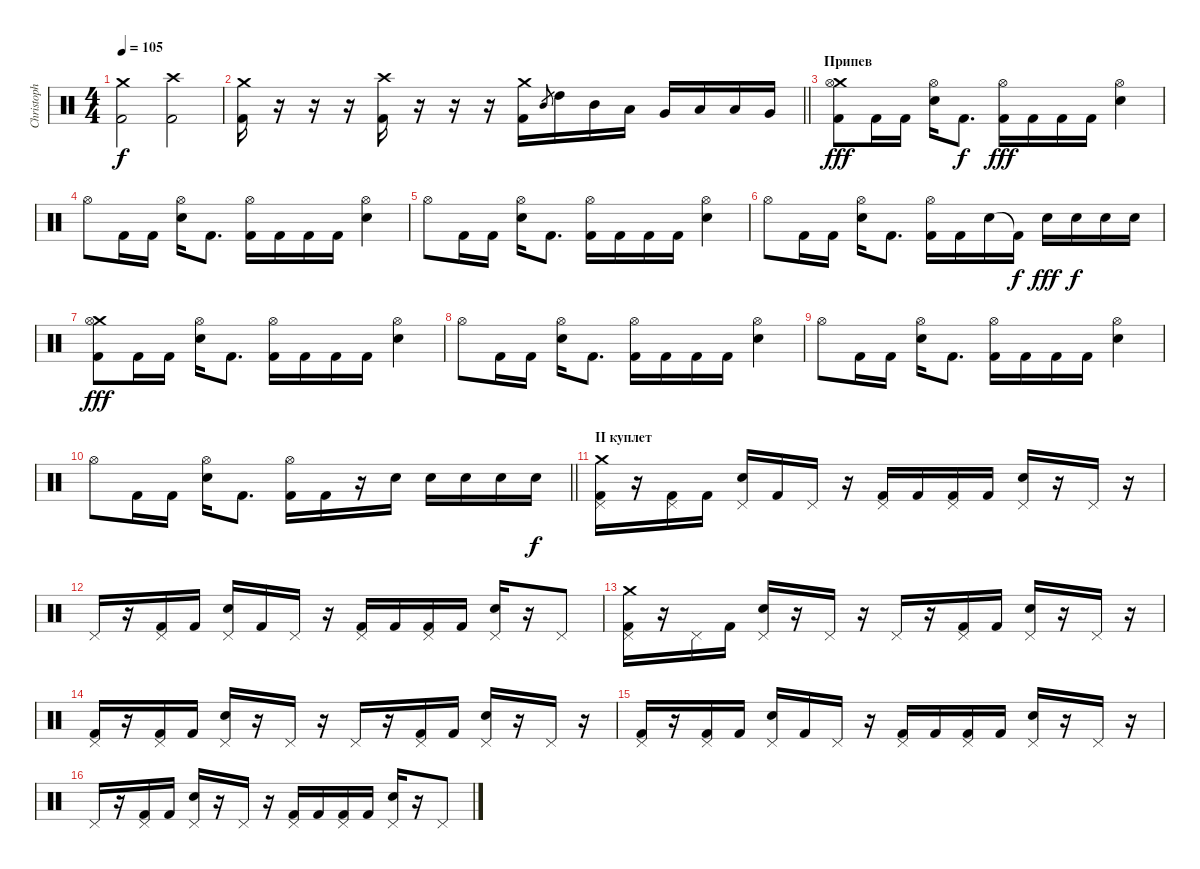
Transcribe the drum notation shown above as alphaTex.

\track ("Christoph Schneider" "Christoph ") {instrument percussion}
\staff {score}
\articulation defaults
\ts (4 4)
\tempo 105
\clef neutral
\ks c
("Crash medium (hit)" "Kick (hit) 2").2{dy f} ("Crash high (hit)" "Kick (hit) 2").2 |
\barLineRight lightlight
("Crash medium (hit)" "Kick (hit) 2").16 r.16 r.16 r.16 ("Crash high (hit)" "Kick (hit) 2").16 r.16 r.16 r.16 ("Crash medium (hit)" "Kick (hit) 2").16 "Mid Tom (hit)".8{gr} "High Tom (hit)".16 "Mid Tom (hit)".16 "Low Tom (hit)".16 "Very Low Tom (hit)".16 "Low Floor Tom (hit)".16 "Low Tom (hit)".16 "Very Low Tom (hit)".16 |
\section ("" "Припев")
("Crash medium (hit)" "Kick (hit) 2" "Hi-Hat (open)").8{dy fff} "Kick (hit) 2".16 "Kick (hit) 2".16 ("Hi-Hat (open)" "Electric Snare (hit)").16 "Kick (hit) 2".8{d dy f} ("Hi-Hat (open)" "Kick (hit) 2").16{dy fff} "Kick (hit) 2".16 "Kick (hit) 2".16 "Kick (hit) 2".16 ("Hi-Hat (open)" "Electric Snare (hit)").4 |
"Hi-Hat (open)".8 "Kick (hit) 2".16 "Kick (hit) 2".16 ("Hi-Hat (open)" "Electric Snare (hit)").16 "Kick (hit) 2".8{d} ("Hi-Hat (open)" "Kick (hit) 2").16 "Kick (hit) 2".16 "Kick (hit) 2".16 "Kick (hit) 2".16 ("Hi-Hat (open)" "Electric Snare (hit)").4 |
"Hi-Hat (open)".8 "Kick (hit) 2".16 "Kick (hit) 2".16 ("Hi-Hat (open)" "Electric Snare (hit)").16 "Kick (hit) 2".8{d} ("Hi-Hat (open)" "Kick (hit) 2").16 "Kick (hit) 2".16 "Kick (hit) 2".16 "Kick (hit) 2".16 ("Hi-Hat (open)" "Electric Snare (hit)").4 |
"Hi-Hat (open)".8 "Kick (hit) 2".16 "Kick (hit) 2".16 ("Hi-Hat (open)" "Electric Snare (hit)").16 "Kick (hit) 2".8{d} ("Hi-Hat (open)" "Kick (hit) 2").16 "Kick (hit) 2".16 "Electric Snare (hit)".16 "Kick (hit) 2"{t}.16{dy f} "Electric Snare (hit)".16{dy fff} "Electric Snare (hit)".16{dy f} "Electric Snare (hit)".16 "Electric Snare (hit)".16 |
("Crash medium (hit)" "Kick (hit) 2" "Hi-Hat (open)").8{dy fff} "Kick (hit) 2".16 "Kick (hit) 2".16 ("Hi-Hat (open)" "Electric Snare (hit)").16 "Kick (hit) 2".8{d} ("Hi-Hat (open)" "Kick (hit) 2").16 "Kick (hit) 2".16 "Kick (hit) 2".16 "Kick (hit) 2".16 ("Hi-Hat (open)" "Electric Snare (hit)").4 |
"Hi-Hat (open)".8 "Kick (hit) 2".16 "Kick (hit) 2".16 ("Hi-Hat (open)" "Electric Snare (hit)").16 "Kick (hit) 2".8{d} ("Hi-Hat (open)" "Kick (hit) 2").16 "Kick (hit) 2".16 "Kick (hit) 2".16 "Kick (hit) 2".16 ("Hi-Hat (open)" "Electric Snare (hit)").4 |
"Hi-Hat (open)".8 "Kick (hit) 2".16 "Kick (hit) 2".16 ("Hi-Hat (open)" "Electric Snare (hit)").16 "Kick (hit) 2".8{d} ("Hi-Hat (open)" "Kick (hit) 2").16 "Kick (hit) 2".16 "Kick (hit) 2".16 "Kick (hit) 2".16 ("Hi-Hat (open)" "Electric Snare (hit)").4 |
\barLineRight lightlight "Hi-Hat (open)".8 "Kick (hit) 2".16 "Kick (hit) 2".16
("Hi-Hat (open)" "Electric Snare (hit)").16 "Kick (hit) 2".8{d} ("Hi-Hat (open)" "Kick (hit) 2").16 "Kick (hit) 2".16 r.16 "Electric Snare (hit)".16 "Electric Snare (hit)".16 "Electric Snare (hit)".16 "Electric Snare (hit)".16 "Electric Snare (hit)".16{dy f} |
\section ("" "II куплет")
("Crash medium (hit)" "Kick (hit) 2" "Pedal Hi-Hat (hit)").16 r.16 ("Pedal Hi-Hat (hit)" "Kick (hit) 2").16 "Kick (hit) 2".16 ("Pedal Hi-Hat (hit)" "Electric Snare (hit)").16 "Kick (hit) 2".16 "Pedal Hi-Hat (hit)".16 r.16 ("Pedal Hi-Hat (hit)" "Kick (hit) 2").16 "Kick (hit) 2".16 ("Pedal Hi-Hat (hit)" "Kick (hit) 2").16 "Kick (hit) 2".16 ("Pedal Hi-Hat (hit)" "Electric Snare (hit)").16 r.16 "Pedal Hi-Hat (hit)".16 r.16 |
"Pedal Hi-Hat (hit)".16 r.16 ("Pedal Hi-Hat (hit)" "Kick (hit) 2").16 "Kick (hit) 2".16 ("Pedal Hi-Hat (hit)" "Electric Snare (hit)").16 "Kick (hit) 2".16 "Pedal Hi-Hat (hit)".16 r.16 ("Pedal Hi-Hat (hit)" "Kick (hit) 2").16 "Kick (hit) 2".16 ("Pedal Hi-Hat (hit)" "Kick (hit) 2").16 "Kick (hit) 2".16 ("Pedal Hi-Hat (hit)" "Electric Snare (hit)").16 r.16 "Pedal Hi-Hat (hit)".8 |
("Pedal Hi-Hat (hit)" "Kick (hit) 2" "Crash medium (hit)").16 r.16 "Pedal Hi-Hat (hit)".16 "Kick (hit) 2".16 ("Pedal Hi-Hat (hit)" "Electric Snare (hit)").16 r.16 "Pedal Hi-Hat (hit)".16 r.16 "Pedal Hi-Hat (hit)".16 r.16 ("Pedal Hi-Hat (hit)" "Kick (hit) 2").16 "Kick (hit) 2".16 ("Pedal Hi-Hat (hit)" "Electric Snare (hit)").16 r.16 "Pedal Hi-Hat (hit)".16 r.16 |
("Pedal Hi-Hat (hit)" "Kick (hit) 2").16 r.16 ("Pedal Hi-Hat (hit)" "Kick (hit) 2").16 "Kick (hit) 2".16 ("Pedal Hi-Hat (hit)" "Electric Snare (hit)").16 r.16 "Pedal Hi-Hat (hit)".16 r.16 "Pedal Hi-Hat (hit)".16 r.16 ("Pedal Hi-Hat (hit)" "Kick (hit) 2").16 "Kick (hit) 2".16 ("Pedal Hi-Hat (hit)" "Electric Snare (hit)").16 r.16 "Pedal Hi-Hat (hit)".16 r.16 |
("Kick (hit) 2" "Pedal Hi-Hat (hit)").16 r.16 ("Pedal Hi-Hat (hit)" "Kick (hit) 2").16 "Kick (hit) 2".16 ("Pedal Hi-Hat (hit)" "Electric Snare (hit)").16 "Kick (hit) 2".16 "Pedal Hi-Hat (hit)".16 r.16 ("Pedal Hi-Hat (hit)" "Kick (hit) 2").16 "Kick (hit) 2".16 ("Pedal Hi-Hat (hit)" "Kick (hit) 2").16 "Kick (hit) 2".16 ("Pedal Hi-Hat (hit)" "Electric Snare (hit)").16 r.16 "Pedal Hi-Hat (hit)".16 r.16 |
"Pedal Hi-Hat (hit)".16 r.16 ("Pedal Hi-Hat (hit)" "Kick (hit) 2").16 "Kick (hit) 2".16 ("Pedal Hi-Hat (hit)" "Electric Snare (hit)").16 r.16 "Pedal Hi-Hat (hit)".16 r.16 ("Pedal Hi-Hat (hit)" "Kick (hit) 2").16 "Kick (hit) 2".16 ("Pedal Hi-Hat (hit)" "Kick (hit) 2").16 "Kick (hit) 2".16 ("Pedal Hi-Hat (hit)" "Electric Snare (hit)").16 r.16 "Pedal Hi-Hat (hit)".8
